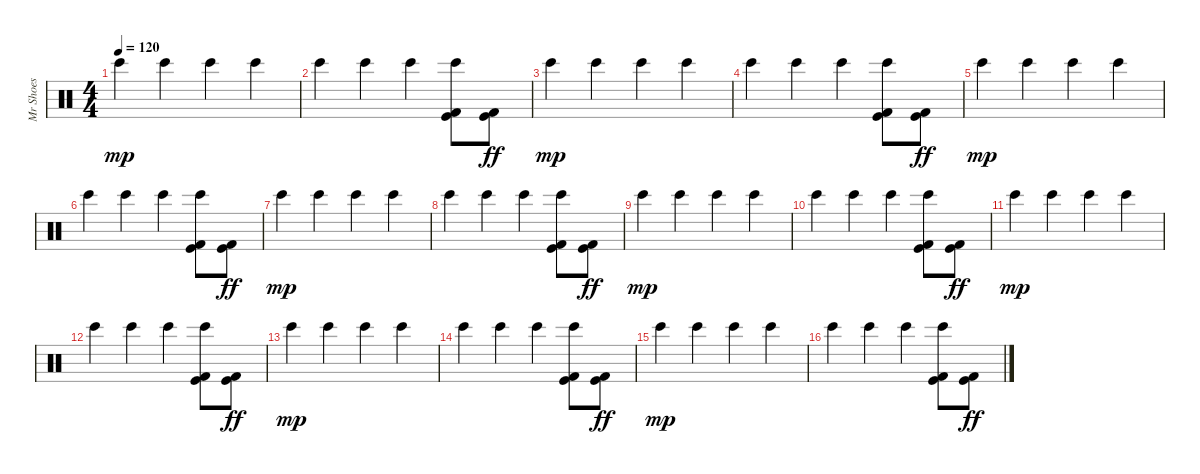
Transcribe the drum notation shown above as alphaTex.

\track ("Mr Shoes" "Mr Shoes") {instrument percussion}
\staff {score}
\articulation defaults
\ts (4 4)
\tempo 120
\clef neutral
\ks c "Bongo High (hit)".4{dy mp} "Bongo High (hit)".4 "Bongo High (hit)".4 "Bongo High (hit)".4
|
"Bongo High (hit)".4 "Bongo High (hit)".4 "Bongo High (hit)".4 ("Kick (hit) 2" "Kick (hit)" "Bongo High (hit)").8 ("Kick (hit) 2" "Kick (hit)").8{dy ff} |
"Bongo High (hit)".4{dy mp} "Bongo High (hit)".4 "Bongo High (hit)".4 "Bongo High (hit)".4 |
"Bongo High (hit)".4 "Bongo High (hit)".4 "Bongo High (hit)".4 ("Kick (hit) 2" "Kick (hit)" "Bongo High (hit)").8 ("Kick (hit) 2" "Kick (hit)").8{dy ff} |
"Bongo High (hit)".4{dy mp} "Bongo High (hit)".4 "Bongo High (hit)".4 "Bongo High (hit)".4 |
"Bongo High (hit)".4 "Bongo High (hit)".4 "Bongo High (hit)".4 ("Kick (hit) 2" "Kick (hit)" "Bongo High (hit)").8 ("Kick (hit) 2" "Kick (hit)").8{dy ff} |
"Bongo High (hit)".4{dy mp} "Bongo High (hit)".4 "Bongo High (hit)".4 "Bongo High (hit)".4 |
"Bongo High (hit)".4 "Bongo High (hit)".4 "Bongo High (hit)".4 ("Kick (hit) 2" "Kick (hit)" "Bongo High (hit)").8 ("Kick (hit) 2" "Kick (hit)").8{dy ff} |
"Bongo High (hit)".4{dy mp} "Bongo High (hit)".4 "Bongo High (hit)".4 "Bongo High (hit)".4 |
"Bongo High (hit)".4 "Bongo High (hit)".4 "Bongo High (hit)".4 ("Kick (hit) 2" "Kick (hit)" "Bongo High (hit)").8 ("Kick (hit) 2" "Kick (hit)").8{dy ff} |
"Bongo High (hit)".4{dy mp} "Bongo High (hit)".4 "Bongo High (hit)".4 "Bongo High (hit)".4 |
"Bongo High (hit)".4 "Bongo High (hit)".4 "Bongo High (hit)".4 ("Kick (hit) 2" "Kick (hit)" "Bongo High (hit)").8 ("Kick (hit) 2" "Kick (hit)").8{dy ff} |
"Bongo High (hit)".4{dy mp} "Bongo High (hit)".4 "Bongo High (hit)".4 "Bongo High (hit)".4 |
"Bongo High (hit)".4 "Bongo High (hit)".4 "Bongo High (hit)".4 ("Kick (hit) 2" "Kick (hit)" "Bongo High (hit)").8 ("Kick (hit) 2" "Kick (hit)").8{dy ff} |
"Bongo High (hit)".4{dy mp} "Bongo High (hit)".4 "Bongo High (hit)".4 "Bongo High (hit)".4 |
"Bongo High (hit)".4 "Bongo High (hit)".4 "Bongo High (hit)".4 ("Kick (hit) 2" "Kick (hit)" "Bongo High (hit)").8 ("Kick (hit) 2" "Kick (hit)").8{dy ff}
